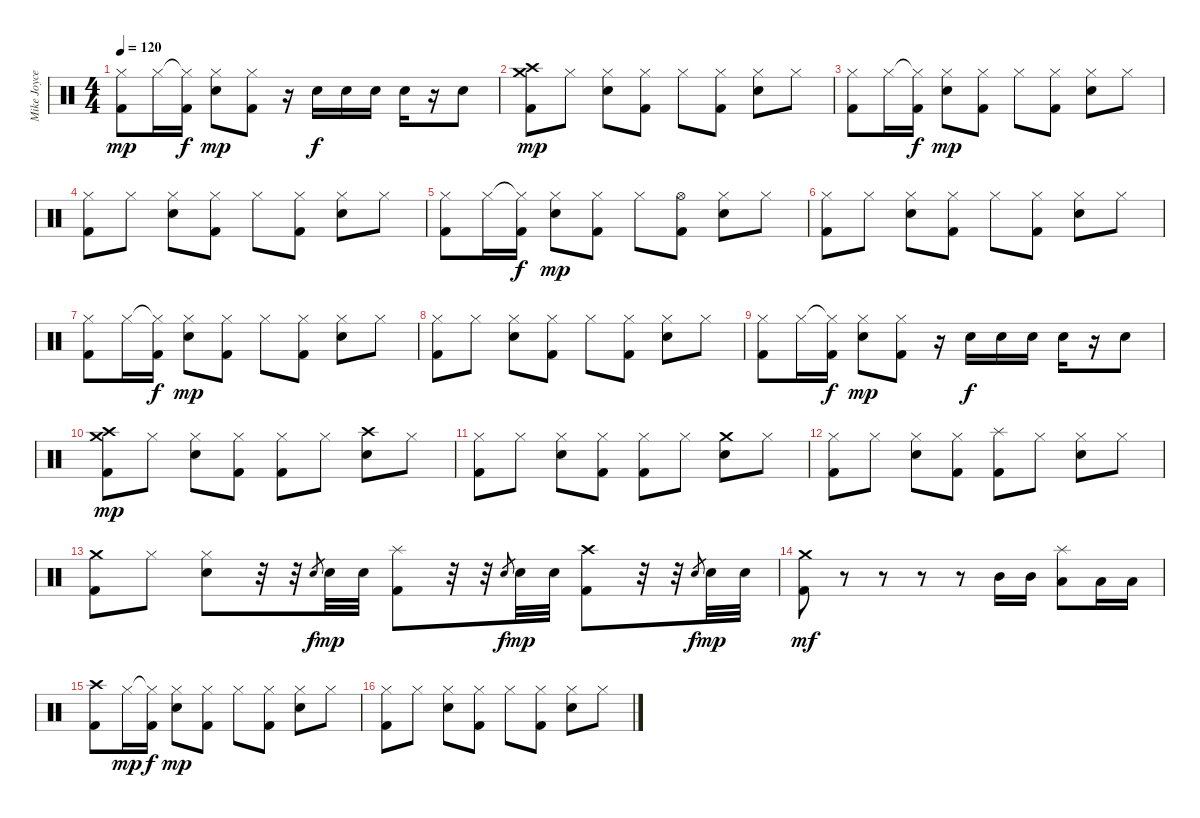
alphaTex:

\track ("Mike Joyce" "Mike Joyce") {instrument percussion}
\staff {score}
\articulation defaults
\ts (4 4)
\tempo 120
\clef neutral
\ks c
("Hi-Hat (closed)" "Kick (hit) 2").8{dy mp} "Hi-Hat (closed)".16 ("Hi-Hat (closed)"{t} "Kick (hit) 2").16{dy f} ("Hi-Hat (closed)" "Electric Snare (hit)").8{dy mp} ("Hi-Hat (closed)" "Kick (hit) 2").8 r.16 "Electric Snare (hit)".16{dy f} "Electric Snare (hit)".16 "Electric Snare (hit)".16 "Electric Snare (hit)".16 r.16 "Electric Snare (hit)".8 |
("Crash medium (hit)" "Crash high (hit)" "Kick (hit) 2").8{dy mp} "Hi-Hat (closed)".8 ("Hi-Hat (closed)" "Electric Snare (hit)").8 ("Hi-Hat (closed)" "Kick (hit) 2").8 "Hi-Hat (closed)".8 ("Hi-Hat (closed)" "Kick (hit) 2").8 ("Hi-Hat (closed)" "Electric Snare (hit)").8 "Hi-Hat (closed)".8 |
("Hi-Hat (closed)" "Kick (hit) 2").8 "Hi-Hat (closed)".16 ("Hi-Hat (closed)"{t} "Kick (hit) 2").16{dy f} ("Hi-Hat (closed)" "Electric Snare (hit)").8{dy mp} ("Hi-Hat (closed)" "Kick (hit) 2").8 "Hi-Hat (closed)".8 ("Hi-Hat (closed)" "Kick (hit) 2").8 ("Hi-Hat (closed)" "Electric Snare (hit)").8 "Hi-Hat (closed)".8 |
("Hi-Hat (closed)" "Kick (hit) 2").8 "Hi-Hat (closed)".8 ("Hi-Hat (closed)" "Electric Snare (hit)").8 ("Hi-Hat (closed)" "Kick (hit) 2").8 "Hi-Hat (closed)".8 ("Hi-Hat (closed)" "Kick (hit) 2").8 ("Hi-Hat (closed)" "Electric Snare (hit)").8 "Hi-Hat (closed)".8 |
("Hi-Hat (closed)" "Kick (hit) 2").8 "Hi-Hat (closed)".16 ("Hi-Hat (closed)"{t} "Kick (hit) 2").16{dy f} ("Hi-Hat (closed)" "Electric Snare (hit)").8{dy mp} ("Hi-Hat (closed)" "Kick (hit) 2").8 "Hi-Hat (closed)".8 ("Hi-Hat (open)" "Kick (hit) 2").8 ("Hi-Hat (closed)" "Electric Snare (hit)").8 "Hi-Hat (closed)".8 |
("Hi-Hat (closed)" "Kick (hit) 2").8 "Hi-Hat (closed)".8 ("Hi-Hat (closed)" "Electric Snare (hit)").8 ("Hi-Hat (closed)" "Kick (hit) 2").8 "Hi-Hat (closed)".8 ("Hi-Hat (closed)" "Kick (hit) 2").8 ("Hi-Hat (closed)" "Electric Snare (hit)").8 "Hi-Hat (closed)".8 |
("Hi-Hat (closed)" "Kick (hit) 2").8 "Hi-Hat (closed)".16 ("Hi-Hat (closed)"{t} "Kick (hit) 2").16{dy f} ("Hi-Hat (closed)" "Electric Snare (hit)").8{dy mp} ("Hi-Hat (closed)" "Kick (hit) 2").8 "Hi-Hat (closed)".8 ("Hi-Hat (closed)" "Kick (hit) 2").8 ("Hi-Hat (closed)" "Electric Snare (hit)").8 "Hi-Hat (closed)".8 |
("Hi-Hat (closed)" "Kick (hit) 2").8 "Hi-Hat (closed)".8 ("Hi-Hat (closed)" "Electric Snare (hit)").8 ("Hi-Hat (closed)" "Kick (hit) 2").8 "Hi-Hat (closed)".8 ("Hi-Hat (closed)" "Kick (hit) 2").8 ("Hi-Hat (closed)" "Electric Snare (hit)").8 "Hi-Hat (closed)".8 |
("Hi-Hat (closed)" "Kick (hit) 2").8 "Hi-Hat (closed)".16 ("Hi-Hat (closed)"{t} "Kick (hit) 2").16{dy f} ("Hi-Hat (closed)" "Electric Snare (hit)").8{dy mp} ("Hi-Hat (closed)" "Kick (hit) 2").8 r.16 "Electric Snare (hit)".16{dy f} "Electric Snare (hit)".16 "Electric Snare (hit)".16 "Electric Snare (hit)".16 r.16 "Electric Snare (hit)".8 |
("Crash high (hit)" "Crash medium (hit)" "Kick (hit) 2").8{dy mp} "Hi-Hat (closed)".8 ("Hi-Hat (closed)" "Electric Snare (hit)").8 ("Hi-Hat (closed)" "Kick (hit) 2").8 ("Hi-Hat (closed)" "Kick (hit) 2").8 "Hi-Hat (closed)".8 ("Crash high (hit)" "Electric Snare (hit)").8 "Hi-Hat (closed)".8 |
("Hi-Hat (closed)" "Kick (hit) 2").8 "Hi-Hat (closed)".8 ("Hi-Hat (closed)" "Electric Snare (hit)").8 ("Hi-Hat (closed)" "Kick (hit) 2").8 ("Hi-Hat (closed)" "Kick (hit) 2").8 "Hi-Hat (closed)".8 ("Crash medium (hit)" "Electric Snare (hit)").8 "Hi-Hat (closed)".8 |
("Hi-Hat (closed)" "Kick (hit) 2").8 "Hi-Hat (closed)".8 ("Hi-Hat (closed)" "Electric Snare (hit)").8 ("Hi-Hat (closed)" "Kick (hit) 2").8 ("Splash (hit)" "Kick (hit) 2").8 "Hi-Hat (closed)".8 ("Hi-Hat (closed)" "Electric Snare (hit)").8 "Hi-Hat (closed)".8 |
("Crash medium (hit)" "Kick (hit) 2").8 "Hi-Hat (closed)".8 ("Hi-Hat (closed)" "Electric Snare (hit)").8 r.32 r.32 "Electric Snare (hit)".8{gr dy f} "Electric Snare (hit)".32{dy mp} "Electric Snare (hit)".32 ("Splash (hit)" "Kick (hit) 2").8 r.32 r.32 "Electric Snare (hit)".8{gr dy f} "Electric Snare (hit)".32{dy mp} "Electric Snare (hit)".32 ("Crash high (hit)" "Kick (hit) 2").8 r.32 r.32 "Electric Snare (hit)".8{gr dy f} "Electric Snare (hit)".32{dy mp} "Electric Snare (hit)".32 |
("Crash medium (hit)" "Kick (hit) 2").8{dy mf} r.8 r.8 r.8 r.8 "Mid Tom (hit)".16 "Mid Tom (hit)".16 ("Splash (hit)" "Low Tom (hit)").8 "Low Floor Tom (hit)".16 "Low Tom (hit)".16 |
("Crash high (hit)" "Kick (hit) 2").8 "Hi-Hat (closed)".16{dy mp} ("Hi-Hat (closed)"{t} "Kick (hit) 2").16{dy f} ("Hi-Hat (closed)" "Electric Snare (hit)").8{dy mp} ("Hi-Hat (closed)" "Kick (hit) 2").8 "Hi-Hat (closed)".8 ("Hi-Hat (closed)" "Kick (hit) 2").8 ("Hi-Hat (closed)" "Electric Snare (hit)").8 "Hi-Hat (closed)".8 |
("Hi-Hat (closed)" "Kick (hit) 2").8 "Hi-Hat (closed)".8 ("Hi-Hat (closed)" "Electric Snare (hit)").8 ("Hi-Hat (closed)" "Kick (hit) 2").8 "Hi-Hat (closed)".8 ("Hi-Hat (closed)" "Kick (hit) 2").8 ("Hi-Hat (closed)" "Electric Snare (hit)").8 "Hi-Hat (closed)".8
